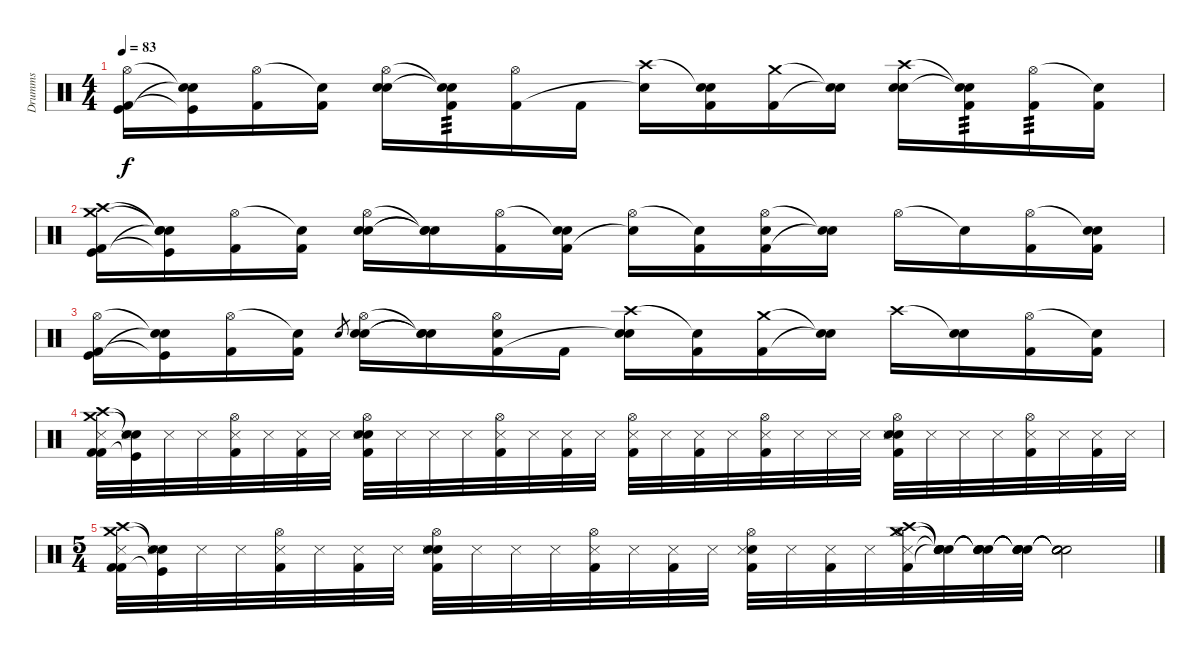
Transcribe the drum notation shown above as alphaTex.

\track ("Drumms" "Drumms") {instrument percussion}
\staff {score}
\articulation defaults
\ts (4 4)
\tempo 83
\clef neutral
\ks c
("Hi-Hat (open)" "Kick (hit) 2" "Kick (hit)").16{dy f} ("Snare (hit)"{t} "Kick (hit)"{t} "Snare (hit)"{t}).16 ("Hi-Hat (open)" "Kick (hit) 2").16 ("Snare (hit)"{t} "Kick (hit) 2").16 ("Hi-Hat (open)" "Electric Snare (hit)" "Electric Snare (hit)").16 ("Snare (hit)"{t} "Kick (hit) 2" "Snare (hit)"{t}).16{tp 3} ("Hi-Hat (open)" "Kick (hit) 2").16 "Kick (hit) 2".16 ("Crash high (hit)" "Snare (hit)"{t}).16 ("Snare (hit)"{t} "Kick (hit) 2" "Electric Snare (hit)").16 ("Crash medium (hit)" "Kick (hit) 2").16 ("Snare (hit)"{t} "Snare (hit)"{t}).16 ("Crash high (hit)" "Electric Snare (hit)" "Electric Snare (hit)").16 ("Snare (hit)"{t} "Kick (hit) 2" "Snare (hit)"{t}).16{tp 3} ("Hi-Hat (open)" "Kick (hit) 2").16{tp 3} ("Snare (hit)"{t} "Kick (hit) 2").16 |
("Crash high (hit)" "Crash medium (hit)" "Kick (hit) 2" "Kick (hit)").16 ("Snare (hit)"{t} "Snare (hit)"{t} "Kick (hit)"{t} "Snare (hit)"{t}).16 ("Hi-Hat (open)" "Kick (hit) 2").16 ("Snare (hit)"{t} "Kick (hit) 2").16 ("Hi-Hat (open)" "Electric Snare (hit)" "Electric Snare (hit)").16 ("Snare (hit)"{t} "Snare (hit)"{t} "Snare (hit)"{t}).16 ("Hi-Hat (open)" "Kick (hit) 2").16 ("Snare (hit)"{t} "Kick (hit) 2" "Electric Snare (hit)").16 ("Hi-Hat (open)" "Snare (hit)"{t}).16 ("Snare (hit)"{t} "Kick (hit) 2").16 ("Hi-Hat (open)" "Kick (hit) 2" "Electric Snare (hit)").16 ("Snare (hit)"{t} "Snare (hit)"{t}).16 "Hi-Hat (open)".16 "Snare (hit)"{t}.16 ("Hi-Hat (open)" "Kick (hit) 2").16 ("Snare (hit)"{t} "Kick (hit) 2" "Electric Snare (hit)").16 |
("Hi-Hat (open)" "Kick (hit) 2" "Kick (hit)").16 ("Snare (hit)"{t} "Kick (hit)"{t} "Snare (hit)"{t}).16 ("Hi-Hat (open)" "Kick (hit) 2").16 ("Snare (hit)"{t} "Kick (hit) 2").16 "Electric Snare (hit)".8{gr} ("Hi-Hat (open)" "Electric Snare (hit)" "Electric Snare (hit)").16 ("Snare (hit)"{t} "Snare (hit)"{t} "Snare (hit)"{t}).16 ("Hi-Hat (open)" "Kick (hit) 2" "Electric Snare (hit)").16 "Kick (hit) 2".16 ("Crash high (hit)" "Snare (hit)"{t} "Electric Snare (hit)").16 ("Snare (hit)"{t} "Kick (hit) 2").16 ("Crash medium (hit)" "Kick (hit) 2").16 ("Snare (hit)"{t} "Snare (hit)"{t}).16 "Crash high (hit)".16 ("Snare (hit)"{t} "Electric Snare (hit)").16 ("Hi-Hat (open)" "Kick (hit) 2").16 ("Snare (hit)"{t} "Kick (hit) 2").16 |
("Crash high (hit)" "Crash medium (hit)" "Kick (hit) 2" "Kick (hit) 2" "Snare (side stick) 3").32 ("Snare (hit)"{t} "Snare (hit)"{t} "Kick (hit)"{t} "Snare (side stick) 3").32 "Snare (side stick) 3".32 "Snare (side stick) 3".32 ("Hi-Hat (open)" "Kick (hit) 2" "Snare (side stick) 3").32 "Snare (side stick) 3".32 ("Kick (hit) 2" "Snare (side stick) 3").32 "Snare (side stick) 3".32 ("Hi-Hat (open)" "Electric Snare (hit)" "Electric Snare (hit)" "Kick (hit) 2" "Snare (side stick) 3").32 "Snare (side stick) 3".32 "Snare (side stick) 3".32 "Snare (side stick) 3".32 ("Hi-Hat (open)" "Kick (hit) 2" "Snare (side stick) 3").32 "Snare (side stick) 3".32 ("Kick (hit) 2" "Snare (side stick) 3").32 "Snare (side stick) 3".32 ("Hi-Hat (open)" "Kick (hit) 2" "Snare (side stick) 3").32 "Snare (side stick) 3".32 ("Kick (hit) 2" "Snare (side stick) 3").32 "Snare (side stick) 3".32 ("Hi-Hat (open)" "Kick (hit) 2" "Snare (side stick) 3").32 "Snare (side stick) 3".32 "Snare (side stick) 3".32 "Snare (side stick) 3".32 ("Hi-Hat (open)" "Electric Snare (hit)" "Electric Snare (hit)" "Kick (hit) 2" "Snare (side stick) 3").32 "Snare (side stick) 3".32 "Snare (side stick) 3".32 "Snare (side stick) 3".32 ("Hi-Hat (open)" "Kick (hit) 2" "Snare (side stick) 3").32 "Snare (side stick) 3".32 ("Kick (hit) 2" "Snare (side stick) 3").32 "Snare (side stick) 3".32 |
\ts (5 4)
("Crash high (hit)" "Crash medium (hit)" "Kick (hit) 2" "Kick (hit) 2" "Snare (side stick) 3").32 ("Snare (hit)"{t} "Snare (hit)"{t} "Kick (hit)"{t} "Snare (side stick) 3").32 "Snare (side stick) 3".32 "Snare (side stick) 3".32 ("Hi-Hat (open)" "Kick (hit) 2" "Snare (side stick) 3").32 "Snare (side stick) 3".32 ("Kick (hit) 2" "Snare (side stick) 3").32 "Snare (side stick) 3".32 ("Hi-Hat (open)" "Electric Snare (hit)" "Electric Snare (hit)" "Kick (hit) 2" "Snare (side stick) 3").32 "Snare (side stick) 3".32 "Snare (side stick) 3".32 "Snare (side stick) 3".32 ("Hi-Hat (open)" "Kick (hit) 2" "Snare (side stick) 3").32 "Snare (side stick) 3".32 ("Kick (hit) 2" "Snare (side stick) 3").32 "Snare (side stick) 3".32 ("Hi-Hat (open)" "Electric Snare (hit)" "Kick (hit) 2" "Snare (side stick) 3").32 "Snare (side stick) 3".32 ("Kick (hit) 2" "Snare (side stick) 3").32 "Snare (side stick) 3".32 ("Hi-Hat (open)" "Crash high (hit)" "Crash medium (hit)" "Kick (hit) 2" "Snare (side stick) 3").32 ("Snare (hit)"{t} "Snare (hit)"{t} "Snare (hit)"{t} "Snare (hit)"{t} "Snare (hit)"{t}).32 ("Snare (hit)"{t} "Snare (hit)"{t} "Snare (hit)"{t} "Snare (hit)"{t} "Snare (hit)"{t}).32 ("Snare (hit)"{t} "Snare (hit)"{t} "Snare (hit)"{t} "Snare (hit)"{t} "Snare (hit)"{t}).32 ("Snare (hit)"{t} "Snare (hit)"{t} "Snare (hit)"{t} "Snare (hit)"{t} "Snare (hit)"{t}).2
